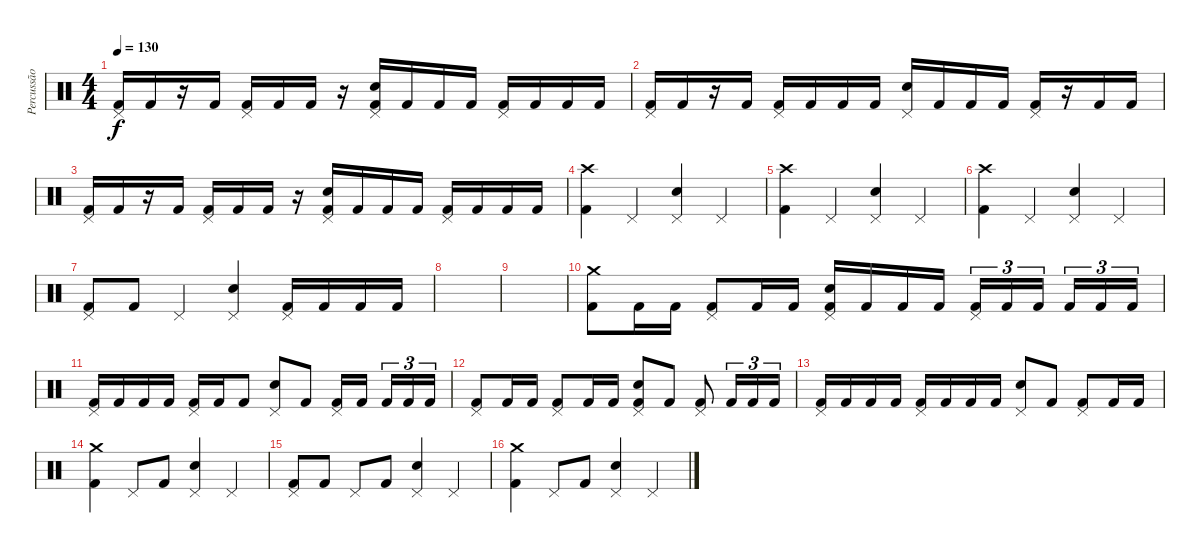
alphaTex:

\track ("Percussão" "Percussão") {instrument percussion}
\staff {score}
\articulation defaults
\ts (4 4)
\tempo 130
\clef neutral
\ks c
("Pedal Hi-Hat (hit)" "Kick (hit) 2").16{dy f} "Kick (hit) 2".16 r.16 "Kick (hit) 2".16 ("Pedal Hi-Hat (hit)" "Kick (hit) 2").16 "Kick (hit) 2".16 "Kick (hit) 2".16 r.16 ("Pedal Hi-Hat (hit)" "Electric Snare (hit)" "Kick (hit) 2").16 "Kick (hit) 2".16 "Kick (hit) 2".16 "Kick (hit) 2".16 ("Pedal Hi-Hat (hit)" "Kick (hit) 2").16 "Kick (hit) 2".16 "Kick (hit) 2".16 "Kick (hit) 2".16 |
("Pedal Hi-Hat (hit)" "Kick (hit) 2").16 "Kick (hit) 2".16 r.16 "Kick (hit) 2".16 ("Pedal Hi-Hat (hit)" "Kick (hit) 2").16 "Kick (hit) 2".16 "Kick (hit) 2".16 "Kick (hit) 2".16 ("Pedal Hi-Hat (hit)" "Electric Snare (hit)").16 "Kick (hit) 2".16 "Kick (hit) 2".16 "Kick (hit) 2".16 ("Pedal Hi-Hat (hit)" "Kick (hit) 2").16 r.16 "Kick (hit) 2".16 "Kick (hit) 2".16 |
("Pedal Hi-Hat (hit)" "Kick (hit) 2").16 "Kick (hit) 2".16 r.16 "Kick (hit) 2".16 ("Pedal Hi-Hat (hit)" "Kick (hit) 2").16 "Kick (hit) 2".16 "Kick (hit) 2".16 r.16 ("Pedal Hi-Hat (hit)" "Electric Snare (hit)" "Kick (hit) 2").16 "Kick (hit) 2".16 "Kick (hit) 2".16 "Kick (hit) 2".16 ("Pedal Hi-Hat (hit)" "Kick (hit) 2").16 "Kick (hit) 2".16 "Kick (hit) 2".16 "Kick (hit) 2".16 |
("Crash high (hit)" "Kick (hit) 2").4 "Pedal Hi-Hat (hit)".4 ("Pedal Hi-Hat (hit)" "Electric Snare (hit)").4 "Pedal Hi-Hat (hit)".4 |
("Crash high (hit)" "Kick (hit) 2").4 "Pedal Hi-Hat (hit)".4 ("Pedal Hi-Hat (hit)" "Electric Snare (hit)").4 "Pedal Hi-Hat (hit)".4 |
("Crash high (hit)" "Kick (hit) 2").4 "Pedal Hi-Hat (hit)".4 ("Pedal Hi-Hat (hit)" "Electric Snare (hit)").4 "Pedal Hi-Hat (hit)".4 |
("Pedal Hi-Hat (hit)" "Kick (hit) 2").8 "Kick (hit) 2".8 "Pedal Hi-Hat (hit)".4 ("Pedal Hi-Hat (hit)" "Electric Snare (hit)").4 ("Pedal Hi-Hat (hit)" "Kick (hit) 2").16 "Kick (hit) 2".16 "Kick (hit) 2".16 "Kick (hit) 2".16 |
|
|
("Crash medium (hit)" "Kick (hit) 2").8 "Kick (hit) 2".16 "Kick (hit) 2".16 ("Pedal Hi-Hat (hit)" "Kick (hit) 2").8 "Kick (hit) 2".16 "Kick (hit) 2".16 ("Pedal Hi-Hat (hit)" "Electric Snare (hit)" "Kick (hit) 2").16 "Kick (hit) 2".16 "Kick (hit) 2".16 "Kick (hit) 2".16 ("Pedal Hi-Hat (hit)" "Kick (hit) 2").16{tu (3 2)} "Kick (hit) 2".16{tu (3 2)} "Kick (hit) 2".16{tu (3 2) beam splitsecondary} "Kick (hit) 2".16{tu (3 2)} "Kick (hit) 2".16{tu (3 2)} "Kick (hit) 2".16{tu (3 2)} |
("Pedal Hi-Hat (hit)" "Kick (hit) 2").16 "Kick (hit) 2".16 "Kick (hit) 2".16 "Kick (hit) 2".16 ("Pedal Hi-Hat (hit)" "Kick (hit) 2").16 "Kick (hit) 2".16 "Kick (hit) 2".8 ("Pedal Hi-Hat (hit)" "Electric Snare (hit)").8 "Kick (hit) 2".8 ("Pedal Hi-Hat (hit)" "Kick (hit) 2").16 "Kick (hit) 2".16{beam splitsecondary} "Kick (hit) 2".16{tu (3 2)} "Kick (hit) 2".16{tu (3 2)} "Kick (hit) 2".16{tu (3 2)} |
("Pedal Hi-Hat (hit)" "Kick (hit) 2").8 "Kick (hit) 2".16 "Kick (hit) 2".16 ("Pedal Hi-Hat (hit)" "Kick (hit) 2").8 "Kick (hit) 2".16 "Kick (hit) 2".16 ("Pedal Hi-Hat (hit)" "Electric Snare (hit)" "Kick (hit) 2").8 "Kick (hit) 2".8 ("Pedal Hi-Hat (hit)" "Kick (hit) 2").8 "Kick (hit) 2".16{tu (3 2)} "Kick (hit) 2".16{tu (3 2)} "Kick (hit) 2".16{tu (3 2)} |
("Pedal Hi-Hat (hit)" "Kick (hit) 2").16 "Kick (hit) 2".16 "Kick (hit) 2".16 "Kick (hit) 2".16 ("Pedal Hi-Hat (hit)" "Kick (hit) 2").16 "Kick (hit) 2".16 "Kick (hit) 2".16 "Kick (hit) 2".16 ("Pedal Hi-Hat (hit)" "Electric Snare (hit)").8 "Kick (hit) 2".8 ("Pedal Hi-Hat (hit)" "Kick (hit) 2").8 "Kick (hit) 2".16 "Kick (hit) 2".16 |
("Crash medium (hit)" "Kick (hit) 2").4 "Pedal Hi-Hat (hit)".8 "Kick (hit) 2".8 ("Pedal Hi-Hat (hit)" "Electric Snare (hit)").4 "Pedal Hi-Hat (hit)".4 |
("Pedal Hi-Hat (hit)" "Kick (hit) 2").8 "Kick (hit) 2".8 "Pedal Hi-Hat (hit)".8 "Kick (hit) 2".8 ("Pedal Hi-Hat (hit)" "Electric Snare (hit)").4 "Pedal Hi-Hat (hit)".4 |
("Crash medium (hit)" "Kick (hit) 2").4 "Pedal Hi-Hat (hit)".8 "Kick (hit) 2".8 ("Pedal Hi-Hat (hit)" "Electric Snare (hit)").4 "Pedal Hi-Hat (hit)".4
